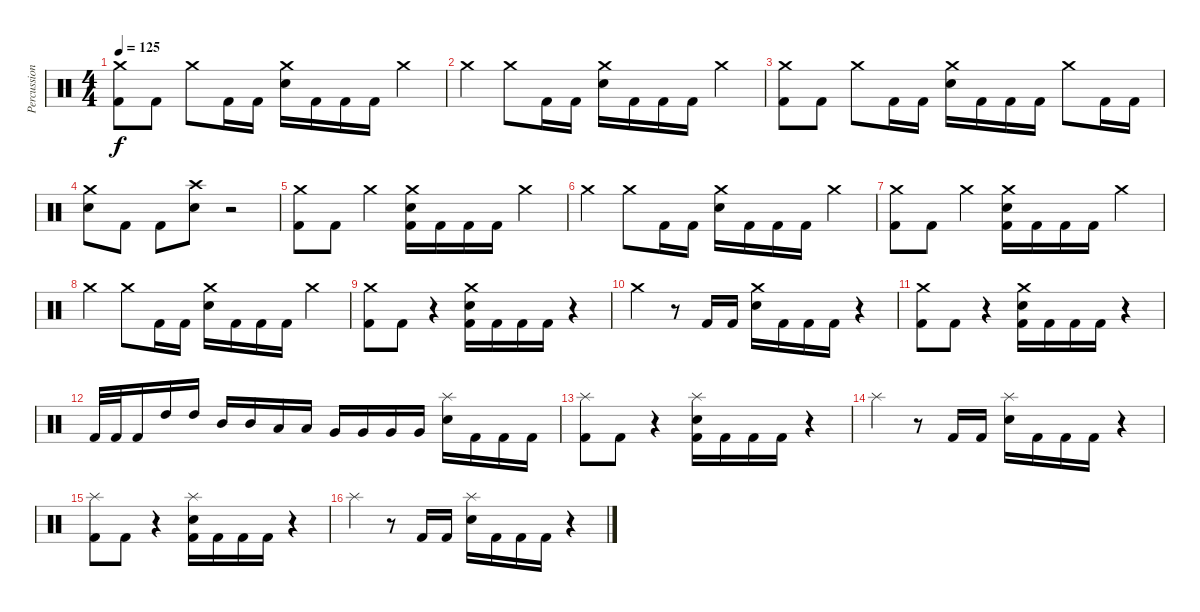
\track ("Percussion" "Percussion") {instrument percussion}
\staff {score}
\articulation defaults
\ts (4 4)
\tempo 125
\clef neutral
\ks c
("Crash medium (hit)" "Kick (hit) 2").8{dy f} "Kick (hit) 2".8 "Crash medium (hit)".8 "Kick (hit) 2".16 "Kick (hit) 2".16 ("Crash medium (hit)" "Snare (hit) 2").16 "Kick (hit) 2".16 "Kick (hit) 2".16 "Kick (hit) 2".16 "Crash medium (hit)".4 |
"Crash medium (hit)".4 "Crash medium (hit)".8 "Kick (hit) 2".16 "Kick (hit) 2".16 ("Crash medium (hit)" "Snare (hit) 2").16 "Kick (hit) 2".16 "Kick (hit) 2".16 "Kick (hit) 2".16 "Crash medium (hit)".4 |
("Crash medium (hit)" "Kick (hit) 2").8 "Kick (hit) 2".8 "Crash medium (hit)".8 "Kick (hit) 2".16 "Kick (hit) 2".16 ("Crash medium (hit)" "Snare (hit) 2").16 "Kick (hit) 2".16 "Kick (hit) 2".16 "Kick (hit) 2".16 "Crash medium (hit)".8 "Kick (hit) 2".16 "Kick (hit) 2".16 |
("Crash medium (hit)" "Snare (hit) 2").8 "Kick (hit) 2".8 "Kick (hit) 2".8 ("Crash high (hit)" "Snare (hit) 2").8 r.2 |
("Crash medium (hit)" "Kick (hit) 2").8 "Kick (hit) 2".8 "Crash medium (hit)".4 ("Crash medium (hit)" "Snare (hit) 2" "Kick (hit) 2").16 "Kick (hit) 2".16 "Kick (hit) 2".16 "Kick (hit) 2".16 "Crash medium (hit)".4 |
"Crash medium (hit)".4 "Crash medium (hit)".8 "Kick (hit) 2".16 "Kick (hit) 2".16 ("Crash medium (hit)" "Snare (hit) 2").16 "Kick (hit) 2".16 "Kick (hit) 2".16 "Kick (hit) 2".16 "Crash medium (hit)".4 |
("Crash medium (hit)" "Kick (hit) 2").8 "Kick (hit) 2".8 "Crash medium (hit)".4 ("Crash medium (hit)" "Snare (hit) 2" "Kick (hit) 2").16 "Kick (hit) 2".16 "Kick (hit) 2".16 "Kick (hit) 2".16 "Crash medium (hit)".4 |
"Crash medium (hit)".4 "Crash medium (hit)".8 "Kick (hit) 2".16 "Kick (hit) 2".16 ("Crash medium (hit)" "Snare (hit) 2").16 "Kick (hit) 2".16 "Kick (hit) 2".16 "Kick (hit) 2".16 "Crash medium (hit)".4 |
("Crash medium (hit)" "Kick (hit) 2").8 "Kick (hit) 2".8 r.4 ("Crash medium (hit)" "Snare (hit) 2" "Kick (hit) 2").16 "Kick (hit) 2".16 "Kick (hit) 2".16 "Kick (hit) 2".16 r.4 |
"Crash medium (hit)".4 r.8 "Kick (hit) 2".16 "Kick (hit) 2".16 ("Crash medium (hit)" "Snare (hit) 2").16 "Kick (hit) 2".16 "Kick (hit) 2".16 "Kick (hit) 2".16 r.4 |
("Crash medium (hit)" "Kick (hit) 2").8 "Kick (hit) 2".8 r.4 ("Crash medium (hit)" "Snare (hit) 2" "Kick (hit) 2").16 "Kick (hit) 2".16 "Kick (hit) 2".16 "Kick (hit) 2".16 r.4 |
"Kick (hit) 2".32 "Kick (hit) 2".32 "Kick (hit) 2".16 "High Tom (hit)".16 "High Tom (hit)".16 "Mid Tom (hit)".16 "Mid Tom (hit)".16 "Low Tom (hit)".16 "Low Tom (hit)".16 "Very Low Tom (hit)".16 "Very Low Tom (hit)".16 "Very Low Tom (hit)".16 "Very Low Tom (hit)".16 ("Splash (hit)" "Snare (hit) 2").16 "Kick (hit) 2".16 "Kick (hit) 2".16 "Kick (hit) 2".16 |
("Splash (hit)" "Kick (hit) 2").8 "Kick (hit) 2".8 r.4 ("Splash (hit)" "Snare (hit) 2" "Kick (hit) 2").16 "Kick (hit) 2".16 "Kick (hit) 2".16 "Kick (hit) 2".16 r.4 |
"Splash (hit)".4 r.8 "Kick (hit) 2".16 "Kick (hit) 2".16 ("Splash (hit)" "Snare (hit) 2").16 "Kick (hit) 2".16 "Kick (hit) 2".16 "Kick (hit) 2".16 r.4 |
("Splash (hit)" "Kick (hit) 2").8 "Kick (hit) 2".8 r.4 ("Splash (hit)" "Snare (hit) 2" "Kick (hit) 2").16 "Kick (hit) 2".16 "Kick (hit) 2".16 "Kick (hit) 2".16 r.4 |
"Splash (hit)".4 r.8 "Kick (hit) 2".16 "Kick (hit) 2".16 ("Splash (hit)" "Snare (hit) 2").16 "Kick (hit) 2".16 "Kick (hit) 2".16 "Kick (hit) 2".16 r.4
